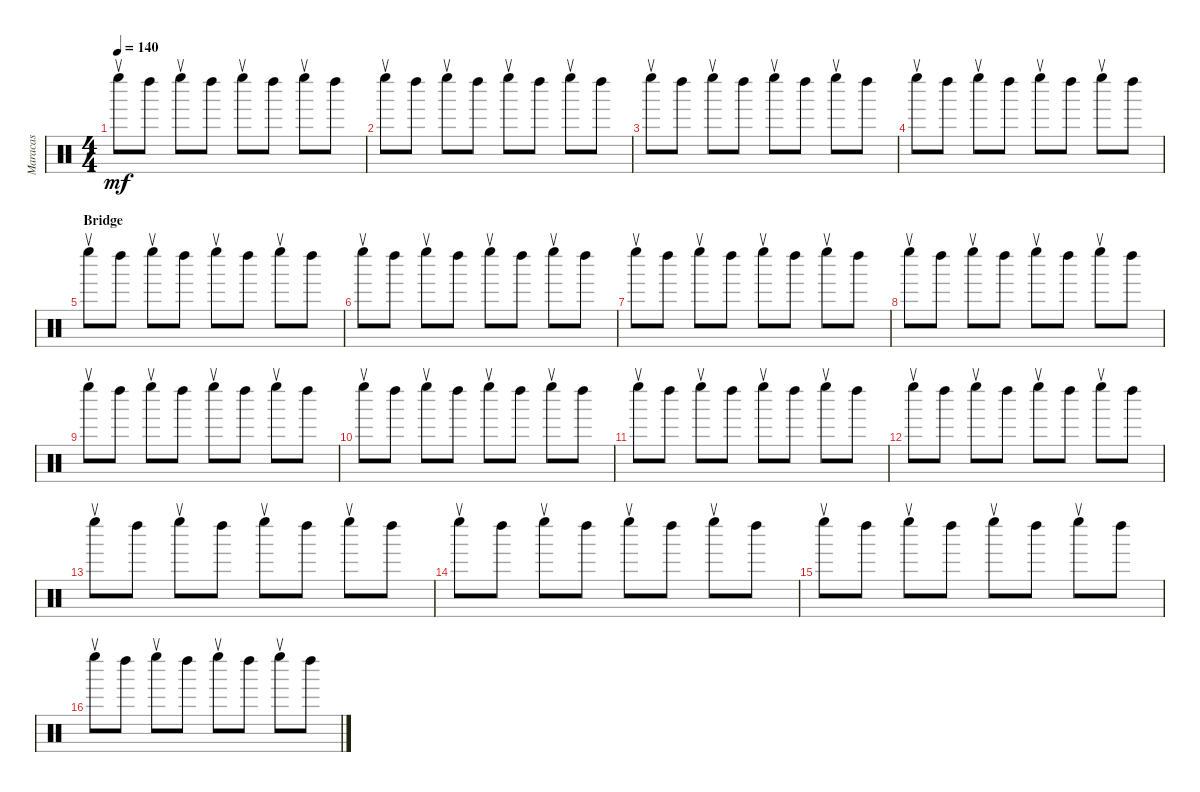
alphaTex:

\track ("Maracas" "Maracas") {instrument percussion}
\staff {score}
\articulation defaults
\ts (4 4)
\tempo 140
\clef neutral
\ks c "Left Maraca (return)".8{dy mf} "Left Maraca (hit)".8 "Left Maraca (return)".8 "Left Maraca (hit)".8 "Left Maraca (return)".8 "Left Maraca (hit)".8 "Left Maraca (return)".8 "Left Maraca (hit)".8
|
"Left Maraca (return)".8 "Left Maraca (hit)".8 "Left Maraca (return)".8 "Left Maraca (hit)".8 "Left Maraca (return)".8 "Left Maraca (hit)".8 "Left Maraca (return)".8 "Left Maraca (hit)".8 |
"Left Maraca (return)".8 "Left Maraca (hit)".8 "Left Maraca (return)".8 "Left Maraca (hit)".8 "Left Maraca (return)".8 "Left Maraca (hit)".8 "Left Maraca (return)".8 "Left Maraca (hit)".8 |
"Left Maraca (return)".8 "Left Maraca (hit)".8 "Left Maraca (return)".8 "Left Maraca (hit)".8 "Left Maraca (return)".8 "Left Maraca (hit)".8 "Left Maraca (return)".8 "Left Maraca (hit)".8 |
\section ("" "Bridge")
"Left Maraca (return)".8 "Left Maraca (hit)".8 "Left Maraca (return)".8 "Left Maraca (hit)".8 "Left Maraca (return)".8 "Left Maraca (hit)".8 "Left Maraca (return)".8 "Left Maraca (hit)".8 |
"Left Maraca (return)".8 "Left Maraca (hit)".8 "Left Maraca (return)".8 "Left Maraca (hit)".8 "Left Maraca (return)".8 "Left Maraca (hit)".8 "Left Maraca (return)".8 "Left Maraca (hit)".8 |
"Left Maraca (return)".8 "Left Maraca (hit)".8 "Left Maraca (return)".8 "Left Maraca (hit)".8 "Left Maraca (return)".8 "Left Maraca (hit)".8 "Left Maraca (return)".8 "Left Maraca (hit)".8 |
"Left Maraca (return)".8 "Left Maraca (hit)".8 "Left Maraca (return)".8 "Left Maraca (hit)".8 "Left Maraca (return)".8 "Left Maraca (hit)".8 "Left Maraca (return)".8 "Left Maraca (hit)".8 |
"Left Maraca (return)".8 "Left Maraca (hit)".8 "Left Maraca (return)".8 "Left Maraca (hit)".8 "Left Maraca (return)".8 "Left Maraca (hit)".8 "Left Maraca (return)".8 "Left Maraca (hit)".8 |
"Left Maraca (return)".8 "Left Maraca (hit)".8 "Left Maraca (return)".8 "Left Maraca (hit)".8 "Left Maraca (return)".8 "Left Maraca (hit)".8 "Left Maraca (return)".8 "Left Maraca (hit)".8 |
"Left Maraca (return)".8 "Left Maraca (hit)".8 "Left Maraca (return)".8 "Left Maraca (hit)".8 "Left Maraca (return)".8 "Left Maraca (hit)".8 "Left Maraca (return)".8 "Left Maraca (hit)".8 |
"Left Maraca (return)".8 "Left Maraca (hit)".8 "Left Maraca (return)".8 "Left Maraca (hit)".8 "Left Maraca (return)".8 "Left Maraca (hit)".8 "Left Maraca (return)".8 "Left Maraca (hit)".8 |
"Left Maraca (return)".8 "Left Maraca (hit)".8 "Left Maraca (return)".8 "Left Maraca (hit)".8 "Left Maraca (return)".8 "Left Maraca (hit)".8 "Left Maraca (return)".8 "Left Maraca (hit)".8 |
"Left Maraca (return)".8 "Left Maraca (hit)".8 "Left Maraca (return)".8 "Left Maraca (hit)".8 "Left Maraca (return)".8 "Left Maraca (hit)".8 "Left Maraca (return)".8 "Left Maraca (hit)".8 |
"Left Maraca (return)".8 "Left Maraca (hit)".8 "Left Maraca (return)".8 "Left Maraca (hit)".8 "Left Maraca (return)".8 "Left Maraca (hit)".8 "Left Maraca (return)".8 "Left Maraca (hit)".8 |
"Left Maraca (return)".8 "Left Maraca (hit)".8 "Left Maraca (return)".8 "Left Maraca (hit)".8 "Left Maraca (return)".8 "Left Maraca (hit)".8 "Left Maraca (return)".8 "Left Maraca (hit)".8
